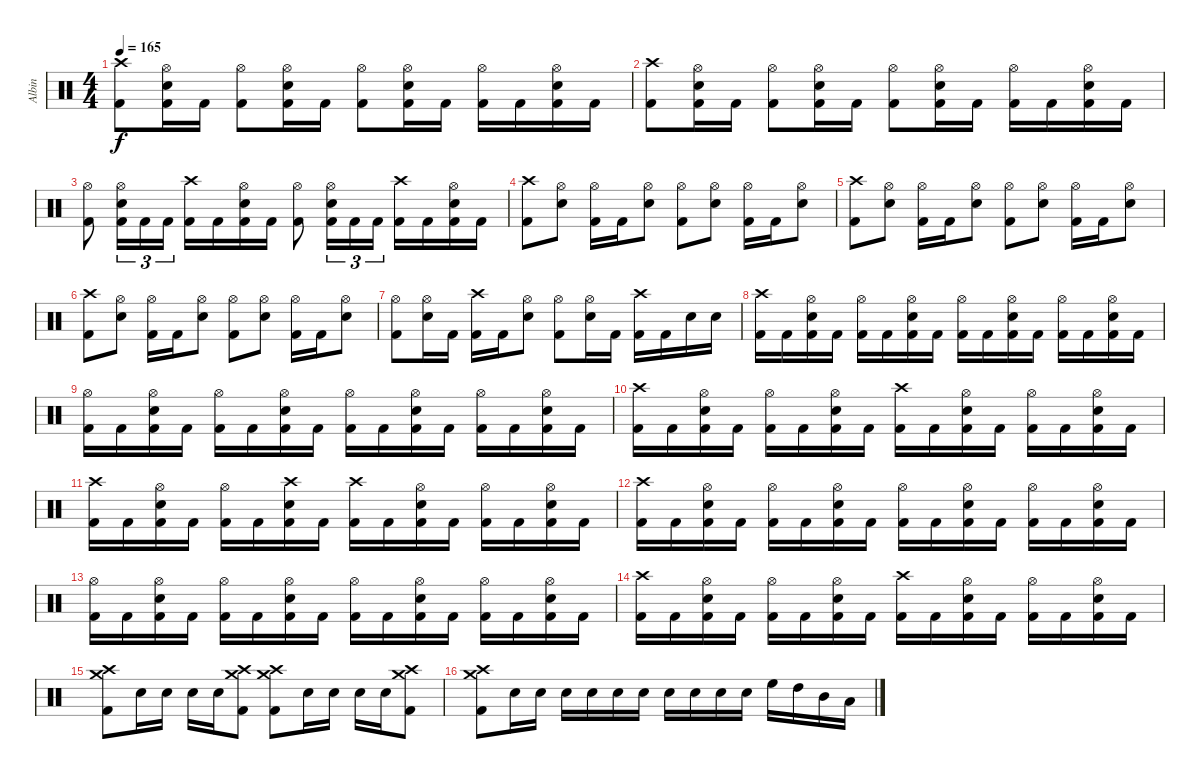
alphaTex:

\track ("Albin" "Albin") {instrument percussion}
\staff {score}
\articulation defaults
\ts (4 4)
\tempo 165
\clef neutral
\ks c
("Kick (hit) 2" "Crash high (hit)").8{dy f} ("Kick (hit) 2" "Electric Snare (hit)" "Hi-Hat (open)").16 "Kick (hit) 2".16 ("Kick (hit) 2" "Hi-Hat (open)").8 ("Kick (hit) 2" "Electric Snare (hit)" "Hi-Hat (open)").16 "Kick (hit) 2".16 ("Kick (hit) 2" "Hi-Hat (open)").8 ("Kick (hit) 2" "Electric Snare (hit)" "Hi-Hat (open)").16 "Kick (hit) 2".16 ("Kick (hit) 2" "Hi-Hat (open)").16 "Kick (hit) 2".16 ("Kick (hit) 2" "Electric Snare (hit)" "Hi-Hat (open)").16 "Kick (hit) 2".16 |
("Kick (hit) 2" "Crash high (hit)").8 ("Kick (hit) 2" "Electric Snare (hit)" "Hi-Hat (open)").16 "Kick (hit) 2".16 ("Kick (hit) 2" "Hi-Hat (open)").8 ("Kick (hit) 2" "Electric Snare (hit)" "Hi-Hat (open)").16 "Kick (hit) 2".16 ("Kick (hit) 2" "Hi-Hat (open)").8 ("Kick (hit) 2" "Electric Snare (hit)" "Hi-Hat (open)").16 "Kick (hit) 2".16 ("Kick (hit) 2" "Hi-Hat (open)").16 "Kick (hit) 2".16 ("Kick (hit) 2" "Electric Snare (hit)" "Hi-Hat (open)").16 "Kick (hit) 2".16 |
("Kick (hit) 2" "Hi-Hat (open)").8 ("Kick (hit) 2" "Electric Snare (hit)" "Hi-Hat (open)").16{tu (3 2)} "Kick (hit) 2".16{tu (3 2)} "Kick (hit) 2".16{tu (3 2)} ("Kick (hit) 2" "Crash high (hit)").16 "Kick (hit) 2".16 ("Kick (hit) 2" "Electric Snare (hit)" "Hi-Hat (open)").16 "Kick (hit) 2".16 ("Kick (hit) 2" "Hi-Hat (open)").8 ("Kick (hit) 2" "Electric Snare (hit)" "Hi-Hat (open)").16{tu (3 2)} "Kick (hit) 2".16{tu (3 2)} "Kick (hit) 2".16{tu (3 2)} ("Kick (hit) 2" "Crash high (hit)").16 "Kick (hit) 2".16 ("Kick (hit) 2" "Electric Snare (hit)" "Hi-Hat (open)").16 "Kick (hit) 2".16 |
("Kick (hit) 2" "Crash high (hit)").8 ("Electric Snare (hit)" "Hi-Hat (open)").8 ("Kick (hit) 2" "Hi-Hat (open)").16 "Kick (hit) 2".16 ("Electric Snare (hit)" "Hi-Hat (open)").8 ("Kick (hit) 2" "Hi-Hat (open)").8 ("Electric Snare (hit)" "Hi-Hat (open)").8 ("Kick (hit) 2" "Hi-Hat (open)").16 "Kick (hit) 2".16 ("Electric Snare (hit)" "Hi-Hat (open)").8 |
("Kick (hit) 2" "Crash high (hit)").8 ("Electric Snare (hit)" "Hi-Hat (open)").8 ("Kick (hit) 2" "Hi-Hat (open)").16 "Kick (hit) 2".16 ("Electric Snare (hit)" "Hi-Hat (open)").8 ("Kick (hit) 2" "Hi-Hat (open)").8 ("Electric Snare (hit)" "Hi-Hat (open)").8 ("Kick (hit) 2" "Hi-Hat (open)").16 "Kick (hit) 2".16 ("Electric Snare (hit)" "Hi-Hat (open)").8 |
("Kick (hit) 2" "Crash high (hit)").8 ("Electric Snare (hit)" "Hi-Hat (open)").8 ("Kick (hit) 2" "Hi-Hat (open)").16 "Kick (hit) 2".16 ("Electric Snare (hit)" "Hi-Hat (open)").8 ("Kick (hit) 2" "Hi-Hat (open)").8 ("Electric Snare (hit)" "Hi-Hat (open)").8 ("Kick (hit) 2" "Hi-Hat (open)").16 "Kick (hit) 2".16 ("Electric Snare (hit)" "Hi-Hat (open)").8 |
("Kick (hit) 2" "Hi-Hat (open)").8 ("Electric Snare (hit)" "Hi-Hat (open)").16 "Kick (hit) 2".16 ("Kick (hit) 2" "Crash high (hit)").16 "Kick (hit) 2".16 ("Electric Snare (hit)" "Hi-Hat (open)").8 ("Kick (hit) 2" "Hi-Hat (open)").8 ("Electric Snare (hit)" "Hi-Hat (open)").16 "Kick (hit) 2".16 ("Kick (hit) 2" "Crash high (hit)").16 "Kick (hit) 2".16 "Electric Snare (hit)".16 "Electric Snare (hit)".16 |
("Kick (hit) 2" "Crash high (hit)").16 "Kick (hit) 2".16 ("Kick (hit) 2" "Electric Snare (hit)" "Hi-Hat (open)").16 "Kick (hit) 2".16 ("Kick (hit) 2" "Hi-Hat (open)").16 "Kick (hit) 2".16 ("Kick (hit) 2" "Electric Snare (hit)" "Hi-Hat (open)").16 "Kick (hit) 2".16 ("Kick (hit) 2" "Hi-Hat (open)").16 "Kick (hit) 2".16 ("Kick (hit) 2" "Electric Snare (hit)" "Hi-Hat (open)").16 "Kick (hit) 2".16 ("Kick (hit) 2" "Hi-Hat (open)").16 "Kick (hit) 2".16 ("Kick (hit) 2" "Electric Snare (hit)" "Hi-Hat (open)").16 "Kick (hit) 2".16 |
("Kick (hit) 2" "Hi-Hat (open)").16 "Kick (hit) 2".16 ("Kick (hit) 2" "Electric Snare (hit)" "Hi-Hat (open)").16 "Kick (hit) 2".16 ("Kick (hit) 2" "Hi-Hat (open)").16 "Kick (hit) 2".16 ("Kick (hit) 2" "Electric Snare (hit)" "Hi-Hat (open)").16 "Kick (hit) 2".16 ("Kick (hit) 2" "Hi-Hat (open)").16 "Kick (hit) 2".16 ("Kick (hit) 2" "Electric Snare (hit)" "Hi-Hat (open)").16 "Kick (hit) 2".16 ("Kick (hit) 2" "Hi-Hat (open)").16 "Kick (hit) 2".16 ("Kick (hit) 2" "Electric Snare (hit)" "Hi-Hat (open)").16 "Kick (hit) 2".16 |
("Kick (hit) 2" "Crash high (hit)").16 "Kick (hit) 2".16 ("Kick (hit) 2" "Electric Snare (hit)" "Hi-Hat (open)").16 "Kick (hit) 2".16 ("Kick (hit) 2" "Hi-Hat (open)").16 "Kick (hit) 2".16 ("Kick (hit) 2" "Electric Snare (hit)" "Hi-Hat (open)").16 "Kick (hit) 2".16 ("Kick (hit) 2" "Crash high (hit)").16 "Kick (hit) 2".16 ("Kick (hit) 2" "Electric Snare (hit)" "Hi-Hat (open)").16 "Kick (hit) 2".16 ("Kick (hit) 2" "Hi-Hat (open)").16 "Kick (hit) 2".16 ("Kick (hit) 2" "Electric Snare (hit)" "Hi-Hat (open)").16 "Kick (hit) 2".16 |
("Kick (hit) 2" "Crash high (hit)").16 "Kick (hit) 2".16 ("Kick (hit) 2" "Electric Snare (hit)" "Hi-Hat (open)").16 "Kick (hit) 2".16 ("Kick (hit) 2" "Hi-Hat (open)").16 "Kick (hit) 2".16 ("Kick (hit) 2" "Electric Snare (hit)" "Crash high (hit)").16 "Kick (hit) 2".16 ("Kick (hit) 2" "Crash high (hit)").16 "Kick (hit) 2".16 ("Kick (hit) 2" "Electric Snare (hit)" "Hi-Hat (open)").16 "Kick (hit) 2".16 ("Kick (hit) 2" "Hi-Hat (open)").16 "Kick (hit) 2".16 ("Kick (hit) 2" "Electric Snare (hit)" "Hi-Hat (open)").16 "Kick (hit) 2".16 |
("Kick (hit) 2" "Crash high (hit)").16 "Kick (hit) 2".16 ("Kick (hit) 2" "Electric Snare (hit)" "Hi-Hat (open)").16 "Kick (hit) 2".16 ("Kick (hit) 2" "Hi-Hat (open)").16 "Kick (hit) 2".16 ("Kick (hit) 2" "Electric Snare (hit)" "Hi-Hat (open)").16 "Kick (hit) 2".16 ("Kick (hit) 2" "Hi-Hat (open)").16 "Kick (hit) 2".16 ("Kick (hit) 2" "Electric Snare (hit)" "Hi-Hat (open)").16 "Kick (hit) 2".16 ("Kick (hit) 2" "Hi-Hat (open)").16 "Kick (hit) 2".16 ("Kick (hit) 2" "Electric Snare (hit)" "Hi-Hat (open)").16 "Kick (hit) 2".16 |
("Kick (hit) 2" "Hi-Hat (open)").16 "Kick (hit) 2".16 ("Kick (hit) 2" "Electric Snare (hit)" "Hi-Hat (open)").16 "Kick (hit) 2".16 ("Kick (hit) 2" "Hi-Hat (open)").16 "Kick (hit) 2".16 ("Kick (hit) 2" "Electric Snare (hit)" "Hi-Hat (open)").16 "Kick (hit) 2".16 ("Kick (hit) 2" "Hi-Hat (open)").16 "Kick (hit) 2".16 ("Kick (hit) 2" "Electric Snare (hit)" "Hi-Hat (open)").16 "Kick (hit) 2".16 ("Kick (hit) 2" "Hi-Hat (open)").16 "Kick (hit) 2".16 ("Kick (hit) 2" "Electric Snare (hit)" "Hi-Hat (open)").16 "Kick (hit) 2".16 |
("Kick (hit) 2" "Crash high (hit)").16 "Kick (hit) 2".16 ("Kick (hit) 2" "Electric Snare (hit)" "Hi-Hat (open)").16 "Kick (hit) 2".16 ("Kick (hit) 2" "Hi-Hat (open)").16 "Kick (hit) 2".16 ("Kick (hit) 2" "Electric Snare (hit)" "Hi-Hat (open)").16 "Kick (hit) 2".16 ("Kick (hit) 2" "Crash high (hit)").16 "Kick (hit) 2".16 ("Kick (hit) 2" "Electric Snare (hit)" "Hi-Hat (open)").16 "Kick (hit) 2".16 ("Kick (hit) 2" "Hi-Hat (open)").16 "Kick (hit) 2".16 ("Kick (hit) 2" "Electric Snare (hit)" "Hi-Hat (open)").16 "Kick (hit) 2".16 |
("Kick (hit) 2" "Crash high (hit)" "Crash medium (hit)").8 "Electric Snare (hit)".16 "Electric Snare (hit)".16 "Electric Snare (hit)".16 "Electric Snare (hit)".16 ("Kick (hit) 2" "Crash high (hit)" "Crash medium (hit)").8 ("Kick (hit) 2" "Crash high (hit)" "Crash medium (hit)").8 "Electric Snare (hit)".16 "Electric Snare (hit)".16 "Electric Snare (hit)".16 "Electric Snare (hit)".16 ("Kick (hit) 2" "Crash high (hit)" "Crash medium (hit)").8 |
("Kick (hit) 2" "Crash high (hit)" "Crash medium (hit)").8 "Electric Snare (hit)".16 "Electric Snare (hit)".16 "Electric Snare (hit)".16 "Electric Snare (hit)".16 "Electric Snare (hit)".16 "Electric Snare (hit)".16 "Electric Snare (hit)".16 "Electric Snare (hit)".16 "Electric Snare (hit)".16 "Electric Snare (hit)".16 "High Floor Tom (hit)".16 "High Tom (hit)".16 "Mid Tom (hit)".16 "Low Tom (hit)".16
